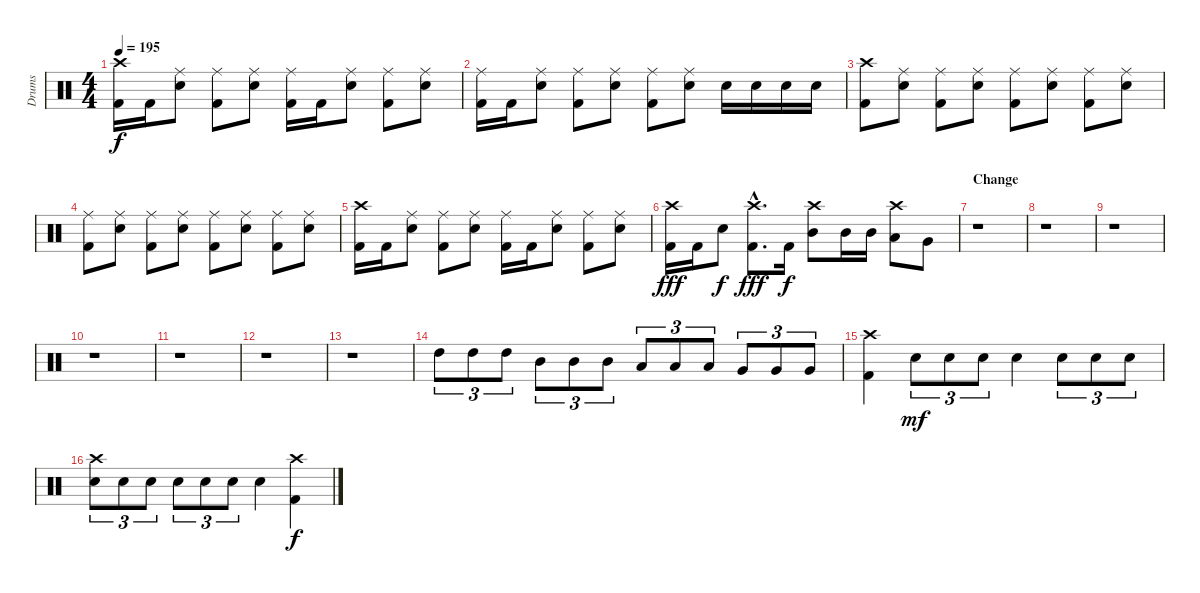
\track ("Drums" "Drums") {instrument percussion}
\staff {score}
\articulation defaults
\ts (4 4)
\tempo 195
\clef neutral
\ks c
("Crash high (hit)" "Kick (hit) 2").16{dy f} "Kick (hit) 2".16 ("Ride (middle)" "Snare (hit) 2").8 ("Ride (middle)" "Kick (hit) 2").8 ("Ride (middle)" "Snare (hit) 2").8 ("Ride (middle)" "Kick (hit) 2").16 "Kick (hit) 2".16 ("Ride (middle)" "Snare (hit) 2").8 ("Ride (middle)" "Kick (hit) 2").8 ("Ride (middle)" "Snare (hit) 2").8 |
("Ride (middle)" "Kick (hit) 2").16 "Kick (hit) 2".16 ("Ride (middle)" "Snare (hit) 2").8 ("Ride (middle)" "Kick (hit) 2").8 ("Ride (middle)" "Snare (hit) 2").8 ("Ride (middle)" "Kick (hit) 2").8 ("Ride (middle)" "Snare (hit) 2").8 "Snare (hit) 2".16 "Snare (hit) 2".16 "Snare (hit) 2".16 "Snare (hit) 2".16 |
("Crash high (hit)" "Kick (hit) 2").8 ("Ride (middle)" "Snare (hit) 2").8 ("Ride (middle)" "Kick (hit) 2").8 ("Ride (middle)" "Snare (hit) 2").8 ("Ride (middle)" "Kick (hit) 2").8 ("Ride (middle)" "Snare (hit) 2").8 ("Ride (middle)" "Kick (hit) 2").8 ("Ride (middle)" "Snare (hit) 2").8 |
("Ride (middle)" "Kick (hit) 2").8 ("Ride (middle)" "Snare (hit) 2").8 ("Ride (middle)" "Kick (hit) 2").8 ("Ride (middle)" "Snare (hit) 2").8 ("Ride (middle)" "Kick (hit) 2").8 ("Ride (middle)" "Snare (hit) 2").8 ("Ride (middle)" "Kick (hit) 2").8 ("Ride (middle)" "Snare (hit) 2").8 |
("Crash high (hit)" "Kick (hit) 2").16 "Kick (hit) 2".16 ("Ride (middle)" "Snare (hit) 2").8 ("Ride (middle)" "Kick (hit) 2").8 ("Ride (middle)" "Snare (hit) 2").8 ("Ride (middle)" "Kick (hit) 2").16 "Kick (hit) 2".16 ("Ride (middle)" "Snare (hit) 2").8 ("Ride (middle)" "Kick (hit) 2").8 ("Ride (middle)" "Snare (hit) 2").8 |
("Crash high (hit)" "Kick (hit) 2").16{dy fff} "Kick (hit) 2".16 "Snare (hit) 2".8{dy f} ("Crash high (hit)"{hac} "Kick (hit) 2"{hac}).8{d dy fff} "Kick (hit) 2".16{dy f} ("Crash high (hit)" "Mid Tom (hit)").8 "Mid Tom (hit)".16 "Mid Tom (hit)".16 ("Crash high (hit)" "Low Tom (hit)").8 "Very Low Tom (hit)".8 |
\section ("" "Change")
r.1 |
r.1 |
r.1 |
r.1 |
r.1 |
r.1 |
r.1 |
"High Tom (hit)".8{tu (3 2)} "High Tom (hit)".8{tu (3 2)} "High Tom (hit)".8{tu (3 2)} "Mid Tom (hit)".8{tu (3 2)} "Mid Tom (hit)".8{tu (3 2)} "Mid Tom (hit)".8{tu (3 2)} "Low Tom (hit)".8{tu (3 2)} "Low Tom (hit)".8{tu (3 2)} "Low Tom (hit)".8{tu (3 2)} "Very Low Tom (hit)".8{tu (3 2)} "Very Low Tom (hit)".8{tu (3 2)} "Very Low Tom (hit)".8{tu (3 2)} |
("Crash high (hit)" "Kick (hit) 2").4 "Snare (hit) 2".8{tu (3 2) dy mf} "Snare (hit) 2".8{tu (3 2)} "Snare (hit) 2".8{tu (3 2)} "Snare (hit) 2".4 "Snare (hit) 2".8{tu (3 2)} "Snare (hit) 2".8{tu (3 2)} "Snare (hit) 2".8{tu (3 2)} |
("Crash high (hit)" "Snare (hit) 2").8{tu (3 2)} "Snare (hit) 2".8{tu (3 2)} "Snare (hit) 2".8{tu (3 2)} "Snare (hit) 2".8{tu (3 2)} "Snare (hit) 2".8{tu (3 2)} "Snare (hit) 2".8{tu (3 2)} "Snare (hit) 2".4 ("Crash high (hit)" "Kick (hit) 2").4{dy f}
